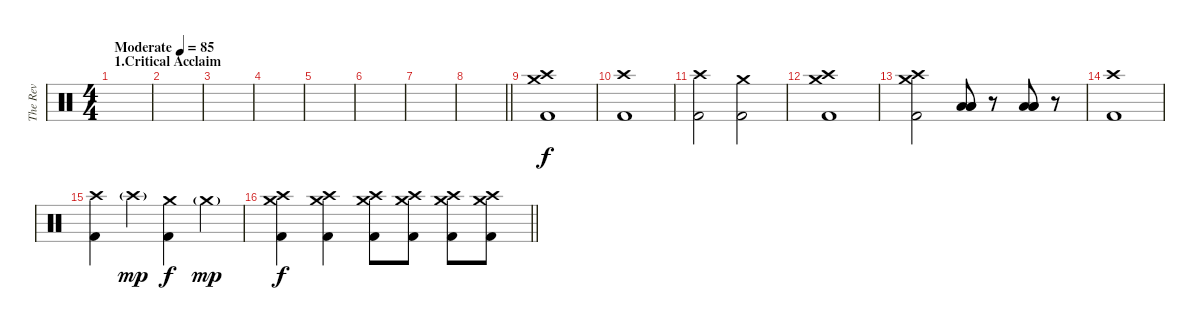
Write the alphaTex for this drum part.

\track ("The Rev" "The Rev") {instrument percussion}
\staff {score}
\articulation defaults
\ts (4 4)
\section ("" "1.Critical Acclaim")
\tempo (85 "Moderate")
\clef neutral
\ks c
|
|
|
|
|
|
|
\barLineRight lightlight
|
("Crash high (hit)" "Crash medium (hit)" "Kick (hit) 2").1 |
("Crash high (hit)" "Kick (hit) 2").1 |
("Crash high (hit)" "Kick (hit) 2").2 ("Crash medium (hit)" "Kick (hit) 2").2 |
("Crash high (hit)" "Crash medium (hit)" "Kick (hit) 2").1 |
("Crash high (hit)" "Crash medium (hit)" "Kick (hit) 2").2 ("Low Tom (hit)" "Low Tom (hit)" "Low Tom (hit)").8 r.8 ("Low Tom (hit)" "Low Tom (hit)" "Low Tom (hit)").8 r.8 |
("Crash high (hit)" "Kick (hit) 2").1 |
("Crash high (hit)" "Kick (hit) 2").4 "Crash high (hit)"{g}.4{dy mp} ("Crash medium (hit)" "Kick (hit) 2").4{dy f} "Crash medium (hit)"{g}.4{dy mp} |
\barLineRight lightlight
("Crash high (hit)" "Crash medium (hit)" "Kick (hit) 2").4{dy f} ("Crash high (hit)" "Crash medium (hit)" "Kick (hit) 2").4 ("Crash high (hit)" "Crash medium (hit)" "Kick (hit) 2").8 ("Crash high (hit)" "Crash medium (hit)" "Kick (hit) 2").8 ("Crash high (hit)" "Crash medium (hit)" "Kick (hit) 2").8 ("Crash high (hit)" "Crash medium (hit)" "Kick (hit) 2").8
